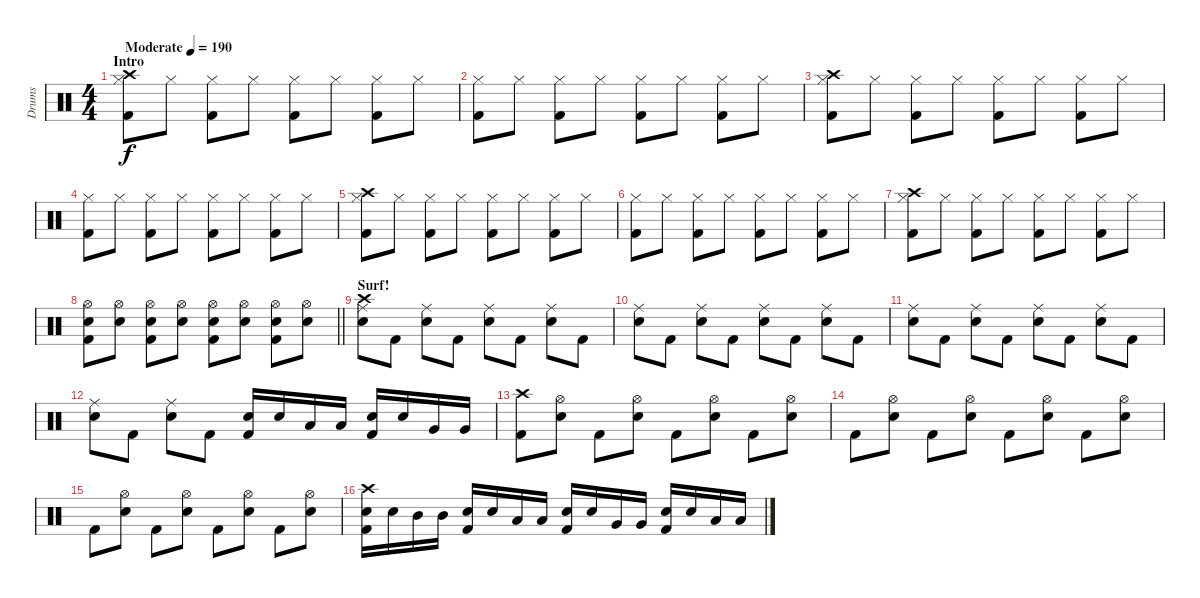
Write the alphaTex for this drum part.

\track ("Drums" "Drums") {instrument percussion}
\staff {score}
\articulation defaults
\ts (4 4)
\section ("" "Intro")
\tempo (190 "Moderate")
\clef neutral
\ks c
("Crash high (hit)" "Hi-Hat (closed)" "Kick (hit) 2").8{dy f} "Hi-Hat (closed)".8 ("Hi-Hat (closed)" "Kick (hit) 2").8 "Hi-Hat (closed)".8 ("Hi-Hat (closed)" "Kick (hit) 2").8 "Hi-Hat (closed)".8 ("Hi-Hat (closed)" "Kick (hit) 2").8 "Hi-Hat (closed)".8 |
("Hi-Hat (closed)" "Kick (hit) 2").8 "Hi-Hat (closed)".8 ("Hi-Hat (closed)" "Kick (hit) 2").8 "Hi-Hat (closed)".8 ("Hi-Hat (closed)" "Kick (hit) 2").8 "Hi-Hat (closed)".8 ("Hi-Hat (closed)" "Kick (hit) 2").8 "Hi-Hat (closed)".8 |
("Crash high (hit)" "Hi-Hat (closed)" "Kick (hit) 2").8 "Hi-Hat (closed)".8 ("Hi-Hat (closed)" "Kick (hit) 2").8 "Hi-Hat (closed)".8 ("Hi-Hat (closed)" "Kick (hit) 2").8 "Hi-Hat (closed)".8 ("Hi-Hat (closed)" "Kick (hit) 2").8 "Hi-Hat (closed)".8 |
("Hi-Hat (closed)" "Kick (hit) 2").8 "Hi-Hat (closed)".8 ("Hi-Hat (closed)" "Kick (hit) 2").8 "Hi-Hat (closed)".8 ("Hi-Hat (closed)" "Kick (hit) 2").8 "Hi-Hat (closed)".8 ("Hi-Hat (closed)" "Kick (hit) 2").8 "Hi-Hat (closed)".8 |
("Crash high (hit)" "Hi-Hat (closed)" "Kick (hit) 2").8 "Hi-Hat (closed)".8 ("Hi-Hat (closed)" "Kick (hit) 2").8 "Hi-Hat (closed)".8 ("Hi-Hat (closed)" "Kick (hit) 2").8 "Hi-Hat (closed)".8 ("Hi-Hat (closed)" "Kick (hit) 2").8 "Hi-Hat (closed)".8 |
("Hi-Hat (closed)" "Kick (hit) 2").8 "Hi-Hat (closed)".8 ("Hi-Hat (closed)" "Kick (hit) 2").8 "Hi-Hat (closed)".8 ("Hi-Hat (closed)" "Kick (hit) 2").8 "Hi-Hat (closed)".8 ("Hi-Hat (closed)" "Kick (hit) 2").8 "Hi-Hat (closed)".8 |
("Crash high (hit)" "Hi-Hat (closed)" "Kick (hit) 2").8 "Hi-Hat (closed)".8 ("Hi-Hat (closed)" "Kick (hit) 2").8 "Hi-Hat (closed)".8 ("Hi-Hat (closed)" "Kick (hit) 2").8 "Hi-Hat (closed)".8 ("Hi-Hat (closed)" "Kick (hit) 2").8 "Hi-Hat (closed)".8 |
\barLineRight lightlight
("Hi-Hat (open)" "Snare (hit) 2" "Kick (hit) 2").8 ("Hi-Hat (open)" "Snare (hit) 2").8 ("Hi-Hat (open)" "Snare (hit) 2" "Kick (hit) 2").8 ("Hi-Hat (open)" "Snare (hit) 2").8 ("Hi-Hat (open)" "Snare (hit) 2" "Kick (hit) 2").8 ("Hi-Hat (open)" "Snare (hit) 2").8 ("Hi-Hat (open)" "Snare (hit) 2" "Kick (hit) 2").8 ("Hi-Hat (open)" "Snare (hit) 2").8 |
\section ("" "Surf!")
("Crash high (hit)" "Ride (middle)" "Snare (hit) 2").8 "Kick (hit) 2".8 ("Ride (middle)" "Snare (hit) 2").8 "Kick (hit) 2".8 ("Ride (middle)" "Snare (hit) 2").8 "Kick (hit) 2".8 ("Ride (middle)" "Snare (hit) 2").8 "Kick (hit) 2".8 |
("Ride (middle)" "Snare (hit) 2").8 "Kick (hit) 2".8 ("Ride (middle)" "Snare (hit) 2").8 "Kick (hit) 2".8 ("Ride (middle)" "Snare (hit) 2").8 "Kick (hit) 2".8 ("Ride (middle)" "Snare (hit) 2").8 "Kick (hit) 2".8 |
("Ride (middle)" "Snare (hit) 2").8 "Kick (hit) 2".8 ("Ride (middle)" "Snare (hit) 2").8 "Kick (hit) 2".8 ("Ride (middle)" "Snare (hit) 2").8 "Kick (hit) 2".8 ("Ride (middle)" "Snare (hit) 2").8 "Kick (hit) 2".8 |
("Ride (middle)" "Snare (hit) 2").8 "Kick (hit) 2".8 ("Ride (middle)" "Snare (hit) 2").8 "Kick (hit) 2".8 ("Snare (hit) 2" "Kick (hit) 2").16 "Snare (hit) 2".16 "Low Tom (hit)".16 "Low Tom (hit)".16 ("Snare (hit) 2" "Kick (hit) 2").16 "Snare (hit) 2".16 "Very Low Tom (hit)".16 "Very Low Tom (hit)".16 |
("Crash high (hit)" "Kick (hit) 2").8 ("Hi-Hat (open)" "Snare (hit) 2").8 "Kick (hit) 2".8 ("Hi-Hat (open)" "Snare (hit) 2").8 "Kick (hit) 2".8 ("Hi-Hat (open)" "Snare (hit) 2").8 "Kick (hit) 2".8 ("Hi-Hat (open)" "Snare (hit) 2").8 |
"Kick (hit) 2".8 ("Hi-Hat (open)" "Snare (hit) 2").8 "Kick (hit) 2".8 ("Hi-Hat (open)" "Snare (hit) 2").8 "Kick (hit) 2".8 ("Hi-Hat (open)" "Snare (hit) 2").8 "Kick (hit) 2".8 ("Hi-Hat (open)" "Snare (hit) 2").8 |
"Kick (hit) 2".8 ("Hi-Hat (open)" "Snare (hit) 2").8 "Kick (hit) 2".8 ("Hi-Hat (open)" "Snare (hit) 2").8 "Kick (hit) 2".8 ("Hi-Hat (open)" "Snare (hit) 2").8 "Kick (hit) 2".8 ("Hi-Hat (open)" "Snare (hit) 2").8 |
("Crash high (hit)" "Snare (hit) 2" "Kick (hit) 2").16 "Snare (hit) 2".16 "Mid Tom (hit)".16 "Mid Tom (hit)".16 ("Snare (hit) 2" "Kick (hit) 2").16 "Snare (hit) 2".16 "Low Tom (hit)".16 "Low Tom (hit)".16 ("Snare (hit) 2" "Kick (hit) 2").16 "Snare (hit) 2".16 "Very Low Tom (hit)".16 "Very Low Tom (hit)".16 ("Snare (hit) 2" "Kick (hit) 2").16 "Snare (hit) 2".16 "Low Floor Tom (hit)".16 "Low Floor Tom (hit)".16
